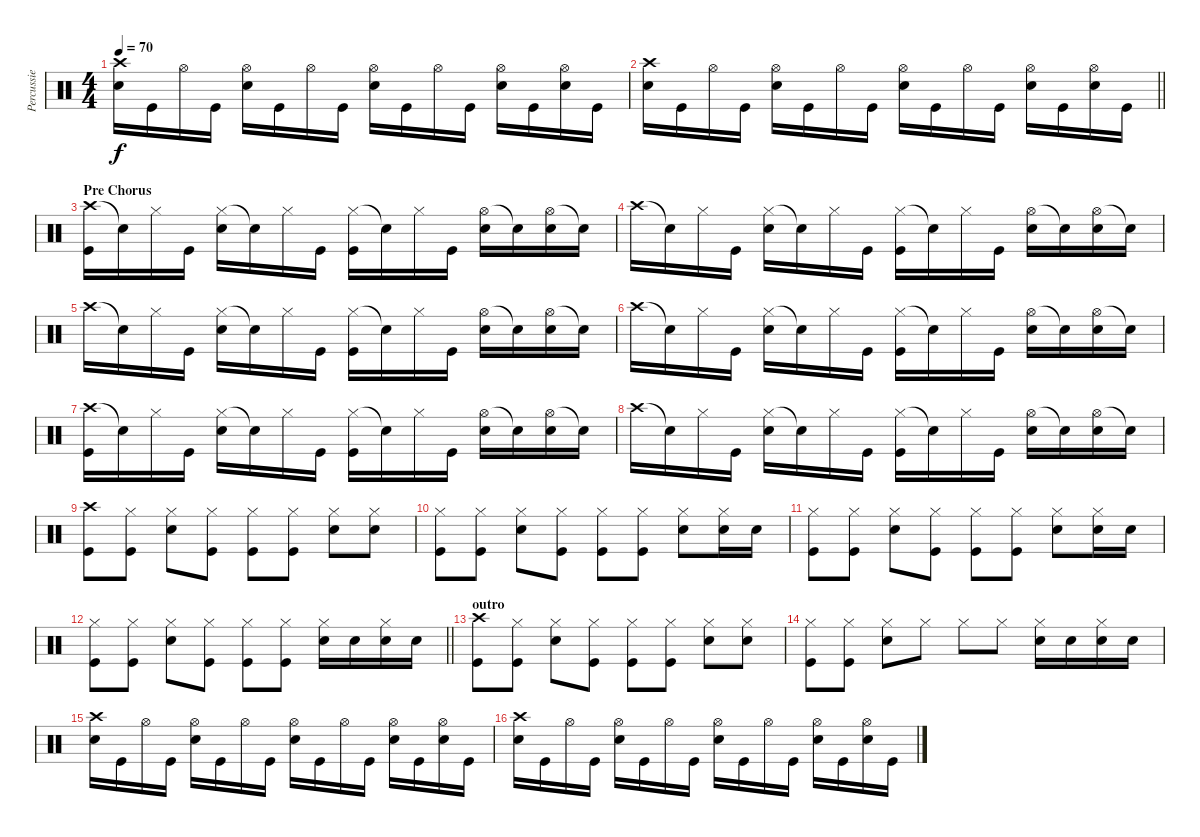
\track ("Percussie" "Percussie") {instrument percussion}
\staff {score}
\articulation defaults
\ts (4 4)
\tempo 70
\clef neutral
\ks c
("Crash high (hit)" "Snare (hit) 2").16{dy f} "Kick (hit)".16 "Hi-Hat (open)".16 "Kick (hit)".16 ("Hi-Hat (open)" "Snare (hit) 2").16 "Kick (hit)".16 "Hi-Hat (open)".16 "Kick (hit)".16 ("Hi-Hat (open)" "Snare (hit) 2").16 "Kick (hit)".16 "Hi-Hat (open)".16 "Kick (hit)".16 ("Hi-Hat (open)" "Snare (hit) 2").16 "Kick (hit)".16 ("Hi-Hat (open)" "Snare (hit) 2").16 "Kick (hit)".16 |
\barLineRight lightlight
("Crash high (hit)" "Snare (hit) 2").16 "Kick (hit)".16 "Hi-Hat (open)".16 "Kick (hit)".16 ("Hi-Hat (open)" "Snare (hit) 2").16 "Kick (hit)".16 "Hi-Hat (open)".16 "Kick (hit)".16 ("Hi-Hat (open)" "Snare (hit) 2").16 "Kick (hit)".16 "Hi-Hat (open)".16 "Kick (hit)".16 ("Hi-Hat (open)" "Snare (hit) 2").16 "Kick (hit)".16 ("Hi-Hat (open)" "Snare (hit) 2").16 "Kick (hit)".16 |
\section ("" "Pre Chorus")
("Crash high (hit)" "Kick (hit)").16 "Snare (hit)"{t}.16 "Hi-Hat (closed)".16 "Kick (hit)".16 ("Hi-Hat (closed)" "Snare (hit) 2").16 "Snare (hit)"{t}.16 "Hi-Hat (closed)".16 "Kick (hit)".16 ("Hi-Hat (closed)" "Kick (hit)").16 "Snare (hit)"{t}.16 "Hi-Hat (closed)".16 "Kick (hit)".16 ("Hi-Hat (open)" "Snare (hit) 2").16 "Snare (hit)"{t}.16 ("Hi-Hat (open)" "Snare (hit) 2").16 "Snare (hit)"{t}.16 |
"Crash high (hit)".16 "Snare (hit)"{t}.16 "Hi-Hat (closed)".16 "Kick (hit)".16 ("Hi-Hat (closed)" "Snare (hit) 2").16 "Snare (hit)"{t}.16 "Hi-Hat (closed)".16 "Kick (hit)".16 ("Hi-Hat (closed)" "Kick (hit)").16 "Snare (hit)"{t}.16 "Hi-Hat (closed)".16 "Kick (hit)".16 ("Hi-Hat (open)" "Snare (hit) 2").16 "Snare (hit)"{t}.16 ("Hi-Hat (open)" "Snare (hit) 2").16 "Snare (hit)"{t}.16 |
"Crash high (hit)".16 "Snare (hit)"{t}.16 "Hi-Hat (closed)".16 "Kick (hit)".16 ("Hi-Hat (closed)" "Snare (hit) 2").16 "Snare (hit)"{t}.16 "Hi-Hat (closed)".16 "Kick (hit)".16 ("Hi-Hat (closed)" "Kick (hit)").16 "Snare (hit)"{t}.16 "Hi-Hat (closed)".16 "Kick (hit)".16 ("Hi-Hat (open)" "Snare (hit) 2").16 "Snare (hit)"{t}.16 ("Hi-Hat (open)" "Snare (hit) 2").16 "Snare (hit)"{t}.16 |
"Crash high (hit)".16 "Snare (hit)"{t}.16 "Hi-Hat (closed)".16 "Kick (hit)".16 ("Hi-Hat (closed)" "Snare (hit) 2").16 "Snare (hit)"{t}.16 "Hi-Hat (closed)".16 "Kick (hit)".16 ("Hi-Hat (closed)" "Kick (hit)").16 "Snare (hit)"{t}.16 "Hi-Hat (closed)".16 "Kick (hit)".16 ("Hi-Hat (open)" "Snare (hit) 2").16 "Snare (hit)"{t}.16 ("Hi-Hat (open)" "Snare (hit) 2").16 "Snare (hit)"{t}.16 |
("Crash high (hit)" "Kick (hit)").16 "Snare (hit)"{t}.16 "Hi-Hat (closed)".16 "Kick (hit)".16 ("Hi-Hat (closed)" "Snare (hit) 2").16 "Snare (hit)"{t}.16 "Hi-Hat (closed)".16 "Kick (hit)".16 ("Hi-Hat (closed)" "Kick (hit)").16 "Snare (hit)"{t}.16 "Hi-Hat (closed)".16 "Kick (hit)".16 ("Hi-Hat (open)" "Snare (hit) 2").16 "Snare (hit)"{t}.16 ("Hi-Hat (open)" "Snare (hit) 2").16 "Snare (hit)"{t}.16 |
"Crash high (hit)".16 "Snare (hit)"{t}.16 "Hi-Hat (closed)".16 "Kick (hit)".16 ("Hi-Hat (closed)" "Snare (hit) 2").16 "Snare (hit)"{t}.16 "Hi-Hat (closed)".16 "Kick (hit)".16 ("Hi-Hat (closed)" "Kick (hit)").16 "Snare (hit)"{t}.16 "Hi-Hat (closed)".16 "Kick (hit)".16 ("Hi-Hat (open)" "Snare (hit) 2").16 "Snare (hit)"{t}.16 ("Hi-Hat (open)" "Snare (hit) 2").16 "Snare (hit)"{t}.16 |
("Crash high (hit)" "Kick (hit)").8 ("Hi-Hat (closed)" "Kick (hit)").8 ("Hi-Hat (closed)" "Snare (hit) 2").8 ("Hi-Hat (closed)" "Kick (hit)").8 ("Hi-Hat (closed)" "Kick (hit)").8 ("Hi-Hat (closed)" "Kick (hit)").8 ("Hi-Hat (closed)" "Snare (hit) 2").8 ("Hi-Hat (closed)" "Snare (hit) 2").8 |
("Hi-Hat (closed)" "Kick (hit)").8 ("Hi-Hat (closed)" "Kick (hit)").8 ("Hi-Hat (closed)" "Snare (hit) 2").8 ("Hi-Hat (closed)" "Kick (hit)").8 ("Hi-Hat (closed)" "Kick (hit)").8 ("Hi-Hat (closed)" "Kick (hit)").8 ("Hi-Hat (closed)" "Snare (hit) 2").8 ("Hi-Hat (closed)" "Snare (hit) 2").16 "Snare (hit) 2".16 |
("Hi-Hat (closed)" "Kick (hit)").8 ("Hi-Hat (closed)" "Kick (hit)").8 ("Hi-Hat (closed)" "Snare (hit) 2").8 ("Hi-Hat (closed)" "Kick (hit)").8 ("Hi-Hat (closed)" "Kick (hit)").8 ("Hi-Hat (closed)" "Kick (hit)").8 ("Hi-Hat (closed)" "Snare (hit) 2").8 ("Hi-Hat (closed)" "Snare (hit) 2").16 "Snare (hit) 2".16 |
\barLineRight lightlight
("Hi-Hat (closed)" "Kick (hit)").8 ("Hi-Hat (closed)" "Kick (hit)").8 ("Hi-Hat (closed)" "Snare (hit) 2").8 ("Hi-Hat (closed)" "Kick (hit)").8 ("Hi-Hat (closed)" "Kick (hit)").8 ("Hi-Hat (closed)" "Kick (hit)").8 ("Hi-Hat (closed)" "Snare (hit) 2").16 "Snare (hit) 2".16 ("Hi-Hat (closed)" "Snare (hit) 2").16 "Snare (hit) 2".16 |
\section ("" "outro")
("Crash high (hit)" "Kick (hit)").8 ("Hi-Hat (closed)" "Kick (hit)").8 ("Hi-Hat (closed)" "Snare (hit) 2").8 ("Hi-Hat (closed)" "Kick (hit)").8 ("Hi-Hat (closed)" "Kick (hit)").8 ("Hi-Hat (closed)" "Kick (hit)").8 ("Hi-Hat (closed)" "Snare (hit) 2").8 ("Hi-Hat (closed)" "Snare (hit) 2").8 |
("Hi-Hat (closed)" "Kick (hit)").8 ("Hi-Hat (closed)" "Kick (hit)").8 ("Hi-Hat (closed)" "Snare (hit) 2").8 "Hi-Hat (closed)".8 "Hi-Hat (closed)".8 "Hi-Hat (closed)".8 ("Hi-Hat (closed)" "Snare (hit) 2").16 "Snare (hit) 2".16 ("Hi-Hat (closed)" "Snare (hit) 2").16 "Snare (hit) 2".16 |
("Crash high (hit)" "Snare (hit) 2").16 "Kick (hit)".16 "Hi-Hat (open)".16 "Kick (hit)".16 ("Hi-Hat (open)" "Snare (hit) 2").16 "Kick (hit)".16 "Hi-Hat (open)".16 "Kick (hit)".16 ("Hi-Hat (open)" "Snare (hit) 2").16 "Kick (hit)".16 "Hi-Hat (open)".16 "Kick (hit)".16 ("Hi-Hat (open)" "Snare (hit) 2").16 "Kick (hit)".16 ("Hi-Hat (open)" "Snare (hit) 2").16 "Kick (hit)".16 |
("Crash high (hit)" "Snare (hit) 2").16 "Kick (hit)".16 "Hi-Hat (open)".16 "Kick (hit)".16 ("Hi-Hat (open)" "Snare (hit) 2").16 "Kick (hit)".16 "Hi-Hat (open)".16 "Kick (hit)".16 ("Hi-Hat (open)" "Snare (hit) 2").16 "Kick (hit)".16 "Hi-Hat (open)".16 "Kick (hit)".16 ("Hi-Hat (open)" "Snare (hit) 2").16 "Kick (hit)".16 ("Hi-Hat (open)" "Snare (hit) 2").16 "Kick (hit)".16
